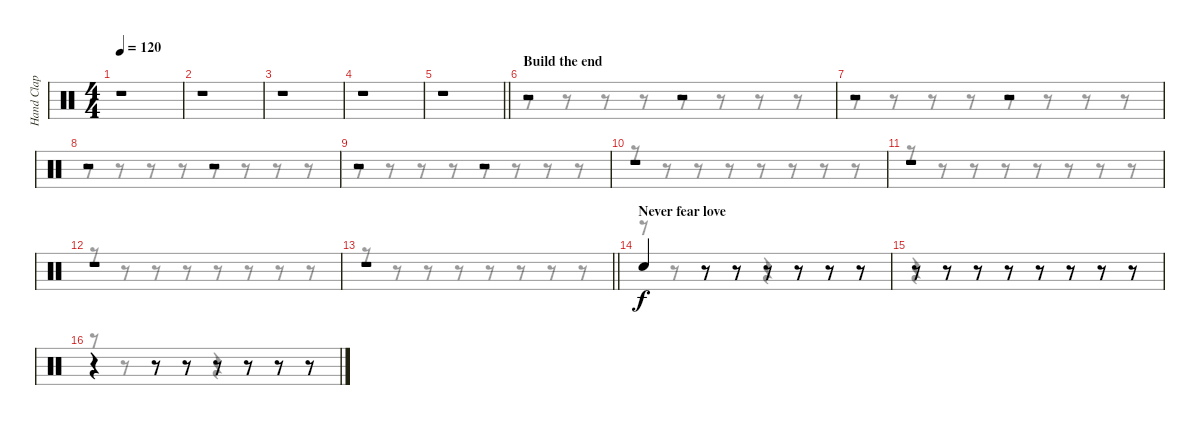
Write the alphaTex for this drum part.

\track ("Hand Clap" "Hand Clap") {instrument percussion}
\staff {score}
\articulation defaults
\voice
\ts (4 4)
\tempo 120
\clef neutral
\ks c
r.1{dy f} |
r.1 |
r.1 |
r.1 |
\barLineRight lightlight
r.1 |
\section ("" "Build the end")
r.2 r.2 |
r.2 r.2 |
r.2 r.2 |
r.2 r.2 |
r.1 |
r.1 |
r.1 |
\barLineRight lightlight
r.1 |
\section ("" "Never fear love")
"Hand Clap (hit)".4 r.8 r.8 r.8 r.8 r.8 r.8 |
r.8 r.8 r.8 r.8 r.8 r.8 r.8 r.8 |
r.4 r.8 r.8 r.8 r.8 r.8 r.8
\voice
\clef neutral
\ottava regular
\simile none
\ks c
|
|
|
|
\barLineRight lightlight
|
r.8 r.8 r.8 r.8 r.8 r.8 r.8 r.8 |
r.8 r.8 r.8 r.8 r.8 r.8 r.8 r.8 |
r.8 r.8 r.8 r.8 r.8 r.8 r.8 r.8 |
r.8 r.8 r.8 r.8 r.8 r.8 r.8 r.8 |
r.8 r.8 r.8 r.8 r.8 r.8 r.8 r.8 |
r.8 r.8 r.8 r.8 r.8 r.8 r.8 r.8 |
r.8 r.8 r.8 r.8 r.8 r.8 r.8 r.8 |
\barLineRight lightlight
r.8 r.8 r.8 r.8 r.8 r.8 r.8 r.8 |
r.8 r.8 r.8 r.8 r.4 r.8 r.8 |
r.4 r.8 r.8 r.8 r.8 r.8 r.8 |
r.8 r.8 r.8 r.8 r.4 r.8 r.8
